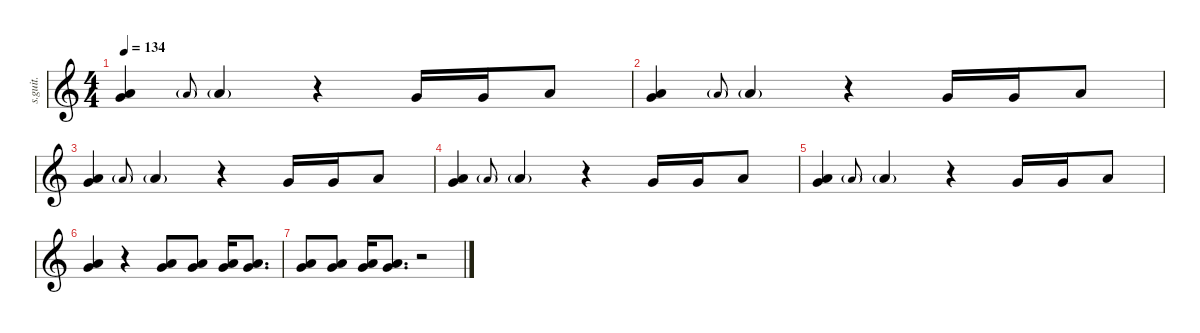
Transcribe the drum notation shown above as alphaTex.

\defaultSystemsLayout 4
\hideDynamics
\bracketExtendMode nobrackets
\track ("Shawn Crahan" "s.guit.") {instrument percussion}
\staff {score}
\articulation defaults
\ts (4 4)
\tempo 134
\clef g2
\ks c
("Very Low Tom (hit)" "Low Floor Tom (hit)").4{dy f} "Low Floor Tom (hit)"{g}.8{gr onbeat} "Low Floor Tom (hit)"{g}.4 r.4 "Very Low Tom (hit)".16 "Very Low Tom (hit)".16 "Low Floor Tom (hit)".8 |
("Very Low Tom (hit)" "Low Floor Tom (hit)").4 "Low Floor Tom (hit)"{g}.8{gr onbeat} "Low Floor Tom (hit)"{g}.4 r.4 "Very Low Tom (hit)".16 "Very Low Tom (hit)".16 "Low Floor Tom (hit)".8 |
("Very Low Tom (hit)" "Low Floor Tom (hit)").4 "Low Floor Tom (hit)"{g}.8{gr onbeat} "Low Floor Tom (hit)"{g}.4 r.4 "Very Low Tom (hit)".16 "Very Low Tom (hit)".16 "Low Floor Tom (hit)".8 |
("Very Low Tom (hit)" "Low Floor Tom (hit)").4 "Low Floor Tom (hit)"{g}.8{gr onbeat} "Low Floor Tom (hit)"{g}.4 r.4 "Very Low Tom (hit)".16 "Very Low Tom (hit)".16 "Low Floor Tom (hit)".8 |
("Very Low Tom (hit)" "Low Floor Tom (hit)").4 "Low Floor Tom (hit)"{g}.8{gr onbeat} "Low Floor Tom (hit)"{g}.4 r.4 "Very Low Tom (hit)".16 "Very Low Tom (hit)".16 "Low Floor Tom (hit)".8 |
("Very Low Tom (hit)" "Low Floor Tom (hit)").4 r.4 ("Very Low Tom (hit)" "Low Floor Tom (hit)").8 ("Very Low Tom (hit)" "Low Floor Tom (hit)").8 ("Very Low Tom (hit)" "Low Floor Tom (hit)").16 ("Very Low Tom (hit)" "Low Floor Tom (hit)").8{d} |
("Very Low Tom (hit)" "Low Floor Tom (hit)").8 ("Very Low Tom (hit)" "Low Floor Tom (hit)").8 ("Very Low Tom (hit)" "Low Floor Tom (hit)").16 ("Very Low Tom (hit)" "Low Floor Tom (hit)").8{d} r.2
